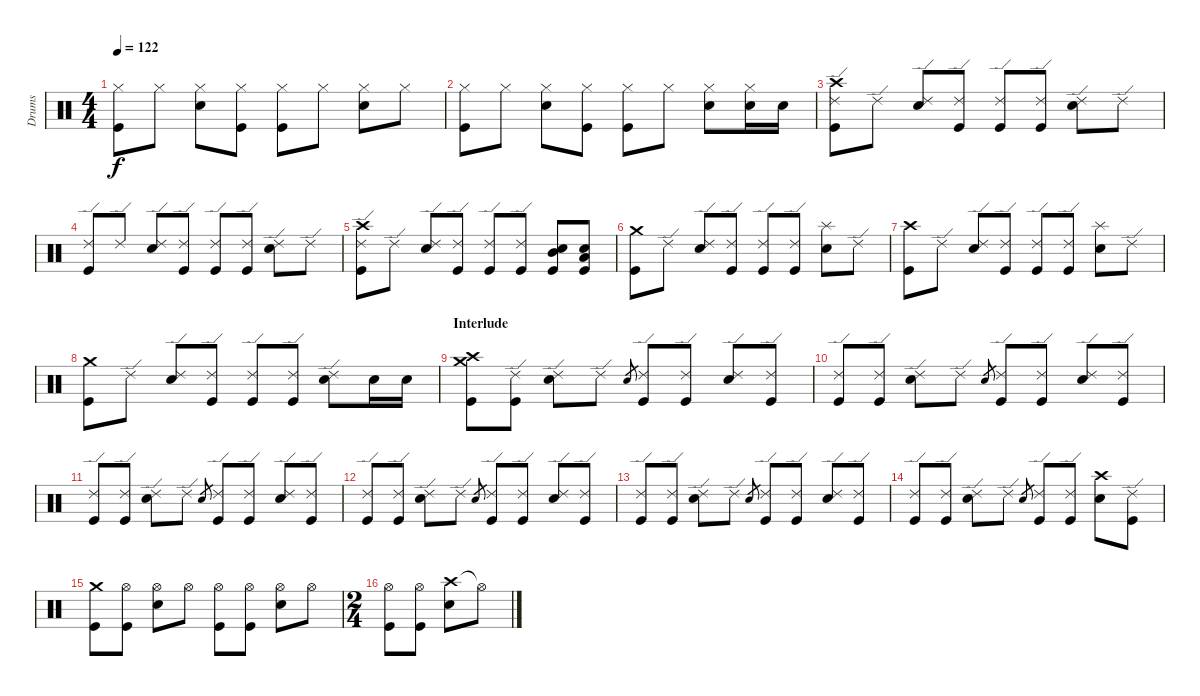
\track ("Drums" "Drums") {instrument percussion}
\staff {score}
\articulation defaults
\ts (4 4)
\tempo 122
\clef neutral
\ks c
("Hi-Hat (closed)" "Kick (hit)").8{dy f} "Hi-Hat (closed)".8 ("Hi-Hat (closed)" "Snare (hit) 2").8 ("Hi-Hat (closed)" "Kick (hit)").8 ("Hi-Hat (closed)" "Kick (hit)").8 "Hi-Hat (closed)".8 ("Hi-Hat (closed)" "Snare (hit) 2").8 "Hi-Hat (closed)".8 |
("Hi-Hat (closed)" "Kick (hit)").8 "Hi-Hat (closed)".8 ("Hi-Hat (closed)" "Snare (hit) 2").8 ("Hi-Hat (closed)" "Kick (hit)").8 ("Hi-Hat (closed)" "Kick (hit)").8 "Hi-Hat (closed)".8 ("Hi-Hat (closed)" "Snare (hit) 2").8 ("Hi-Hat (closed)" "Snare (hit) 2").16 "Snare (hit) 2".16 |
("Ride (edge) 2" "Crash high (hit)" "Kick (hit)").8 "Ride (edge) 2".8 ("Ride (edge) 2" "Snare (hit) 2").8 ("Ride (edge) 2" "Kick (hit)").8 ("Ride (edge) 2" "Kick (hit)").8 ("Ride (edge) 2" "Kick (hit)").8 ("Ride (edge) 2" "Snare (hit) 2").8 "Ride (edge) 2".8 |
("Ride (edge) 2" "Kick (hit)").8 "Ride (edge) 2".8 ("Ride (edge) 2" "Snare (hit) 2").8 ("Ride (edge) 2" "Kick (hit)").8 ("Ride (edge) 2" "Kick (hit)").8 ("Ride (edge) 2" "Kick (hit)").8 ("Ride (edge) 2" "Snare (hit) 2").8 "Ride (edge) 2".8 |
("Ride (edge) 2" "Crash high (hit)" "Kick (hit)").8 "Ride (edge) 2".8 ("Ride (edge) 2" "Snare (hit) 2").8 ("Ride (edge) 2" "Kick (hit)").8 ("Ride (edge) 2" "Kick (hit)").8 ("Ride (edge) 2" "Kick (hit)").8 ("Mid Tom (hit)" "Snare (hit) 2" "Kick (hit)").8 ("Low Floor Tom (hit)" "Snare (hit) 2" "Kick (hit)").8 |
("Crash medium (hit)" "Kick (hit)").8 "Ride (edge) 2".8 ("Ride (edge) 2" "Snare (hit) 2").8 ("Ride (edge) 2" "Kick (hit)").8 ("Ride (edge) 2" "Kick (hit)").8 ("Ride (edge) 2" "Kick (hit)").8 ("Splash (hit)" "Snare (hit) 2").8 "Ride (edge) 2".8 |
("Crash high (hit)" "Kick (hit)").8 "Ride (edge) 2".8 ("Ride (edge) 2" "Snare (hit) 2").8 ("Ride (edge) 2" "Kick (hit)").8 ("Ride (edge) 2" "Kick (hit)").8 ("Ride (edge) 2" "Kick (hit)").8 ("Splash (hit)" "Snare (hit) 2").8 "Ride (edge) 2".8 |
("Crash medium (hit)" "Kick (hit)").8 "Ride (edge) 2".8 ("Ride (edge) 2" "Snare (hit) 2").8 ("Ride (edge) 2" "Kick (hit)").8 ("Ride (edge) 2" "Kick (hit)").8 ("Ride (edge) 2" "Kick (hit)").8 ("Ride (edge) 2" "Snare (hit) 2").8 "Snare (hit) 2".16 "Snare (hit) 2".16 |
\section ("" "Interlude")
("Crash high (hit)" "Crash medium (hit)" "Kick (hit)").8 ("Ride (edge) 2" "Kick (hit)").8 ("Ride (edge) 2" "Snare (hit) 2").8 "Ride (edge) 2".8 "Snare (hit) 2".8{gr} ("Ride (edge) 2" "Kick (hit)").8 ("Ride (edge) 2" "Kick (hit)").8 ("Ride (edge) 2" "Snare (hit) 2").8 ("Ride (edge) 2" "Kick (hit)").8 |
("Ride (edge) 2" "Kick (hit)").8 ("Ride (edge) 2" "Kick (hit)").8 ("Ride (edge) 2" "Snare (hit) 2").8 "Ride (edge) 2".8 "Snare (hit) 2".8{gr} ("Ride (edge) 2" "Kick (hit)").8 ("Ride (edge) 2" "Kick (hit)").8 ("Ride (edge) 2" "Snare (hit) 2").8 ("Ride (edge) 2" "Kick (hit)").8 |
("Ride (edge) 2" "Kick (hit)").8 ("Ride (edge) 2" "Kick (hit)").8 ("Ride (edge) 2" "Snare (hit) 2").8 "Ride (edge) 2".8 "Snare (hit) 2".8{gr} ("Ride (edge) 2" "Kick (hit)").8 ("Ride (edge) 2" "Kick (hit)").8 ("Ride (edge) 2" "Snare (hit) 2").8 ("Ride (edge) 2" "Kick (hit)").8 |
("Ride (edge) 2" "Kick (hit)").8 ("Ride (edge) 2" "Kick (hit)").8 ("Ride (edge) 2" "Snare (hit) 2").8 "Ride (edge) 2".8 "Snare (hit) 2".8{gr} ("Ride (edge) 2" "Kick (hit)").8 ("Ride (edge) 2" "Kick (hit)").8 ("Ride (edge) 2" "Snare (hit) 2").8 ("Ride (edge) 2" "Kick (hit)").8 |
("Ride (edge) 2" "Kick (hit)").8 ("Ride (edge) 2" "Kick (hit)").8 ("Ride (edge) 2" "Snare (hit) 2").8 "Ride (edge) 2".8 "Snare (hit) 2".8{gr} ("Ride (edge) 2" "Kick (hit)").8 ("Ride (edge) 2" "Kick (hit)").8 ("Ride (edge) 2" "Snare (hit) 2").8 ("Ride (edge) 2" "Kick (hit)").8 |
("Ride (edge) 2" "Kick (hit)").8 ("Ride (edge) 2" "Kick (hit)").8 ("Ride (edge) 2" "Snare (hit) 2").8 "Ride (edge) 2".8 "Snare (hit) 2".8{gr} ("Ride (edge) 2" "Kick (hit)").8 ("Ride (edge) 2" "Kick (hit)").8 ("Crash high (hit)" "Snare (hit) 2").8 ("Ride (edge) 2" "Kick (hit)").8 |
("Crash medium (hit)" "Kick (hit)").8 ("Hi-Hat (open)" "Kick (hit)").8 ("Hi-Hat (open)" "Snare (hit) 2").8 "Hi-Hat (open)".8 ("Hi-Hat (open)" "Kick (hit)").8 ("Hi-Hat (open)" "Kick (hit)").8 ("Hi-Hat (open)" "Snare (hit) 2").8 "Hi-Hat (open)".8 |
\ts (2 4)
("Hi-Hat (open)" "Kick (hit)").8 ("Hi-Hat (open)" "Kick (hit)").8 ("Crash high (hit)" "Snare (hit) 2").8 "Hi-Hat (open)"{t}.8
